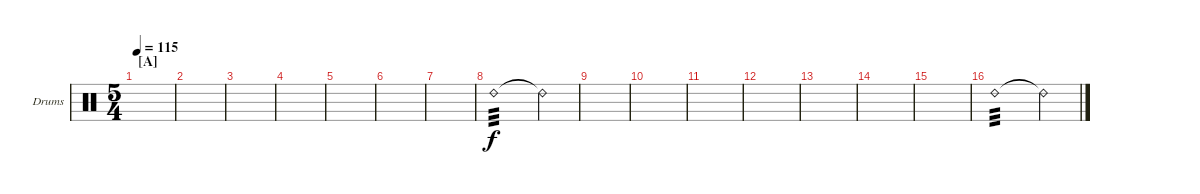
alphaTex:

\defaultSystemsLayout 4
\bracketExtendMode groupsimilarinstruments
\firstSystemTrackNameOrientation horizontal
\otherSystemsTrackNameOrientation horizontal
\track ("Drumkit" "Drums") {instrument percussion}
\staff {score}
\articulation defaults
\ts (5 4)
\beaming (8 3 3 4)
\section ("A" "")
\tempo 115
\clef neutral
\scale
0.474178
\ks c
|
\scale
0.262911 |
\scale
0.262911 |
\scale
0.333333 |
\scale
0.333333 |
\scale
0.333333 |
\scale
0.333333 |
\scale
0.333333 "Ride (bell) 2".1{tp 3} "Ride (bell) 2"{t}.4 |
\scale
0.333333 |
\scale
0.333333 |
\scale
0.333333 |
\scale
0.333333 |
\scale
0.333333 |
\scale
0.333333 |
\scale
0.333333 |
"Ride (bell) 2".1{tp 3} "Ride (bell) 2"{t}.4
